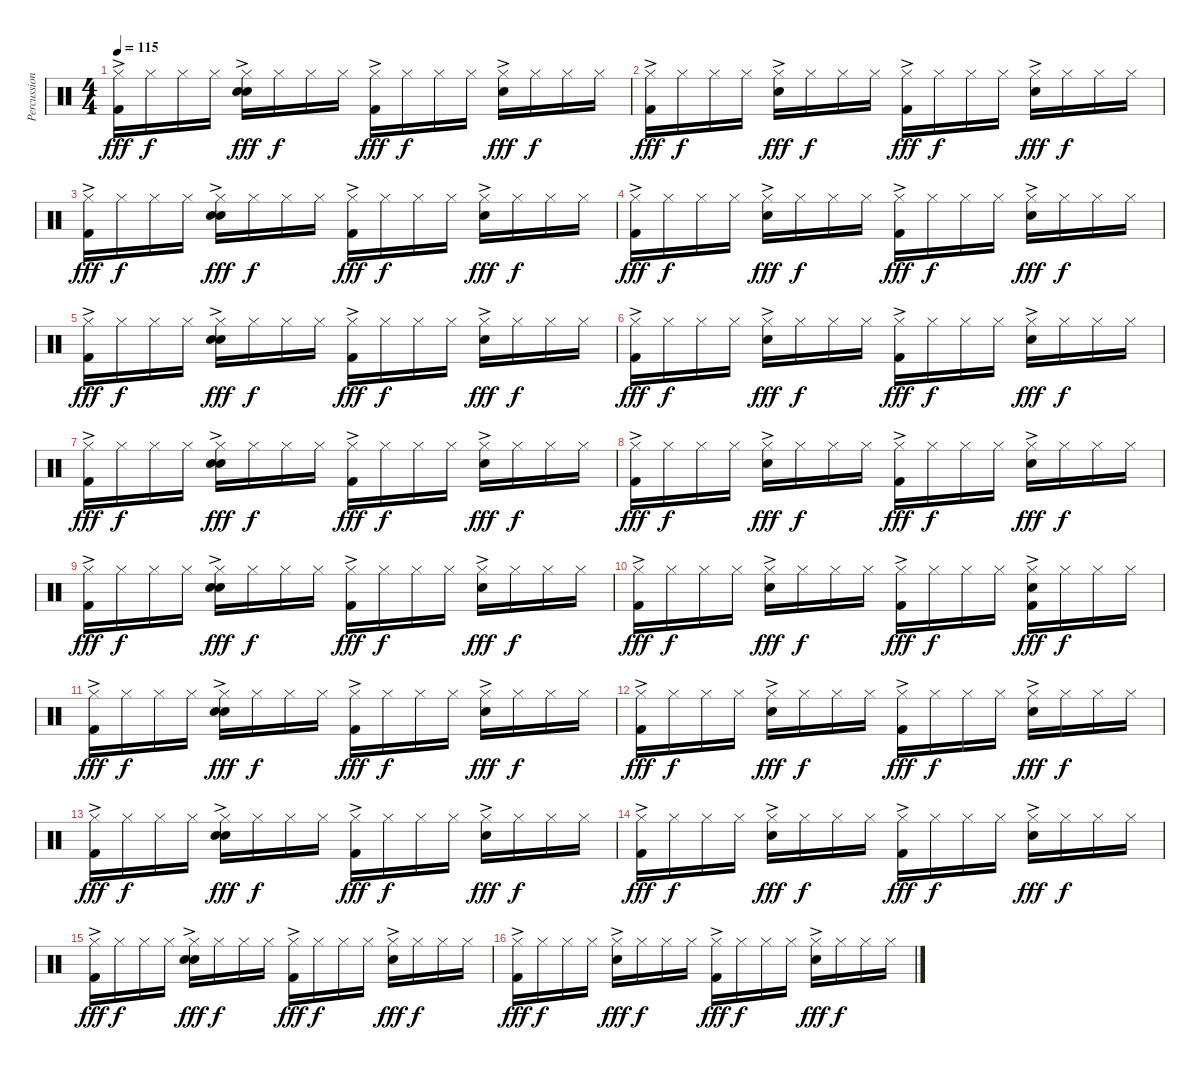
\track ("Percussion" "Percussion") {instrument percussion}
\staff {score}
\articulation defaults
\ts (4 4)
\tempo 115
\clef neutral
\ks c
("Hi-Hat (closed)"{ac} "Kick (hit) 2").16{dy fff} "Hi-Hat (closed)".16{dy f} "Hi-Hat (closed)".16 "Hi-Hat (closed)".16 ("Hi-Hat (closed)"{ac} "Snare (hit) 2" "Hand Clap (hit)").16{dy fff} "Hi-Hat (closed)".16{dy f} "Hi-Hat (closed)".16 "Hi-Hat (closed)".16 ("Hi-Hat (closed)"{ac} "Kick (hit) 2").16{dy fff} "Hi-Hat (closed)".16{dy f} "Hi-Hat (closed)".16 "Hi-Hat (closed)".16 ("Hi-Hat (closed)"{ac} "Snare (hit) 2").16{dy fff} "Hi-Hat (closed)".16{dy f} "Hi-Hat (closed)".16 "Hi-Hat (closed)".16 |
("Hi-Hat (closed)"{ac} "Kick (hit) 2").16{dy fff} "Hi-Hat (closed)".16{dy f} "Hi-Hat (closed)".16 "Hi-Hat (closed)".16 ("Hi-Hat (closed)"{ac} "Snare (hit) 2").16{dy fff} "Hi-Hat (closed)".16{dy f} "Hi-Hat (closed)".16 "Hi-Hat (closed)".16 ("Hi-Hat (closed)"{ac} "Kick (hit) 2").16{dy fff} "Hi-Hat (closed)".16{dy f} "Hi-Hat (closed)".16 "Hi-Hat (closed)".16 ("Hi-Hat (closed)"{ac} "Snare (hit) 2").16{dy fff} "Hi-Hat (closed)".16{dy f} "Hi-Hat (closed)".16 "Hi-Hat (closed)".16 |
("Hi-Hat (closed)"{ac} "Kick (hit) 2").16{dy fff} "Hi-Hat (closed)".16{dy f} "Hi-Hat (closed)".16 "Hi-Hat (closed)".16 ("Hi-Hat (closed)"{ac} "Snare (hit) 2" "Hand Clap (hit)").16{dy fff} "Hi-Hat (closed)".16{dy f} "Hi-Hat (closed)".16 "Hi-Hat (closed)".16 ("Hi-Hat (closed)"{ac} "Kick (hit) 2").16{dy fff} "Hi-Hat (closed)".16{dy f} "Hi-Hat (closed)".16 "Hi-Hat (closed)".16 ("Hi-Hat (closed)"{ac} "Snare (hit) 2").16{dy fff} "Hi-Hat (closed)".16{dy f} "Hi-Hat (closed)".16 "Hi-Hat (closed)".16 |
("Hi-Hat (closed)"{ac} "Kick (hit) 2").16{dy fff} "Hi-Hat (closed)".16{dy f} "Hi-Hat (closed)".16 "Hi-Hat (closed)".16 ("Hi-Hat (closed)"{ac} "Snare (hit) 2").16{dy fff} "Hi-Hat (closed)".16{dy f} "Hi-Hat (closed)".16 "Hi-Hat (closed)".16 ("Hi-Hat (closed)"{ac} "Kick (hit) 2").16{dy fff} "Hi-Hat (closed)".16{dy f} "Hi-Hat (closed)".16 "Hi-Hat (closed)".16 ("Hi-Hat (closed)"{ac} "Snare (hit) 2").16{dy fff} "Hi-Hat (closed)".16{dy f} "Hi-Hat (closed)".16 "Hi-Hat (closed)".16 |
("Hi-Hat (closed)"{ac} "Kick (hit) 2").16{dy fff} "Hi-Hat (closed)".16{dy f} "Hi-Hat (closed)".16 "Hi-Hat (closed)".16 ("Hi-Hat (closed)"{ac} "Snare (hit) 2" "Hand Clap (hit)").16{dy fff} "Hi-Hat (closed)".16{dy f} "Hi-Hat (closed)".16 "Hi-Hat (closed)".16 ("Hi-Hat (closed)"{ac} "Kick (hit) 2").16{dy fff} "Hi-Hat (closed)".16{dy f} "Hi-Hat (closed)".16 "Hi-Hat (closed)".16 ("Hi-Hat (closed)"{ac} "Snare (hit) 2").16{dy fff} "Hi-Hat (closed)".16{dy f} "Hi-Hat (closed)".16 "Hi-Hat (closed)".16 |
("Hi-Hat (closed)"{ac} "Kick (hit) 2").16{dy fff} "Hi-Hat (closed)".16{dy f} "Hi-Hat (closed)".16 "Hi-Hat (closed)".16 ("Hi-Hat (closed)"{ac} "Snare (hit) 2").16{dy fff} "Hi-Hat (closed)".16{dy f} "Hi-Hat (closed)".16 "Hi-Hat (closed)".16 ("Hi-Hat (closed)"{ac} "Kick (hit) 2").16{dy fff} "Hi-Hat (closed)".16{dy f} "Hi-Hat (closed)".16 "Hi-Hat (closed)".16 ("Hi-Hat (closed)"{ac} "Snare (hit) 2").16{dy fff} "Hi-Hat (closed)".16{dy f} "Hi-Hat (closed)".16 "Hi-Hat (closed)".16 |
("Hi-Hat (closed)"{ac} "Kick (hit) 2").16{dy fff} "Hi-Hat (closed)".16{dy f} "Hi-Hat (closed)".16 "Hi-Hat (closed)".16 ("Hi-Hat (closed)"{ac} "Snare (hit) 2" "Hand Clap (hit)").16{dy fff} "Hi-Hat (closed)".16{dy f} "Hi-Hat (closed)".16 "Hi-Hat (closed)".16 ("Hi-Hat (closed)"{ac} "Kick (hit) 2").16{dy fff} "Hi-Hat (closed)".16{dy f} "Hi-Hat (closed)".16 "Hi-Hat (closed)".16 ("Hi-Hat (closed)"{ac} "Snare (hit) 2").16{dy fff} "Hi-Hat (closed)".16{dy f} "Hi-Hat (closed)".16 "Hi-Hat (closed)".16 |
("Hi-Hat (closed)"{ac} "Kick (hit) 2").16{dy fff} "Hi-Hat (closed)".16{dy f} "Hi-Hat (closed)".16 "Hi-Hat (closed)".16 ("Hi-Hat (closed)"{ac} "Snare (hit) 2").16{dy fff} "Hi-Hat (closed)".16{dy f} "Hi-Hat (closed)".16 "Hi-Hat (closed)".16 ("Hi-Hat (closed)"{ac} "Kick (hit) 2").16{dy fff} "Hi-Hat (closed)".16{dy f} "Hi-Hat (closed)".16 "Hi-Hat (closed)".16 ("Hi-Hat (closed)"{ac} "Snare (hit) 2").16{dy fff} "Hi-Hat (closed)".16{dy f} "Hi-Hat (closed)".16 "Hi-Hat (closed)".16 |
("Hi-Hat (closed)"{ac} "Kick (hit) 2").16{dy fff} "Hi-Hat (closed)".16{dy f} "Hi-Hat (closed)".16 "Hi-Hat (closed)".16 ("Hi-Hat (closed)"{ac} "Snare (hit) 2" "Hand Clap (hit)").16{dy fff} "Hi-Hat (closed)".16{dy f} "Hi-Hat (closed)".16 "Hi-Hat (closed)".16 ("Hi-Hat (closed)"{ac} "Kick (hit) 2").16{dy fff} "Hi-Hat (closed)".16{dy f} "Hi-Hat (closed)".16 "Hi-Hat (closed)".16 ("Hi-Hat (closed)"{ac} "Snare (hit) 2").16{dy fff} "Hi-Hat (closed)".16{dy f} "Hi-Hat (closed)".16 "Hi-Hat (closed)".16 |
("Hi-Hat (closed)"{ac} "Kick (hit) 2").16{dy fff} "Hi-Hat (closed)".16{dy f} "Hi-Hat (closed)".16 "Hi-Hat (closed)".16 ("Hi-Hat (closed)"{ac} "Snare (hit) 2").16{dy fff} "Hi-Hat (closed)".16{dy f} "Hi-Hat (closed)".16 "Hi-Hat (closed)".16 ("Hi-Hat (closed)"{ac} "Kick (hit) 2").16{dy fff} "Hi-Hat (closed)".16{dy f} "Hi-Hat (closed)".16 "Hi-Hat (closed)".16 ("Hi-Hat (closed)"{ac} "Kick (hit) 2" "Snare (hit) 2").16{dy fff} "Hi-Hat (closed)".16{dy f} "Hi-Hat (closed)".16 "Hi-Hat (closed)".16 |
("Hi-Hat (closed)"{ac} "Kick (hit) 2").16{dy fff} "Hi-Hat (closed)".16{dy f} "Hi-Hat (closed)".16 "Hi-Hat (closed)".16 ("Hi-Hat (closed)"{ac} "Snare (hit) 2" "Hand Clap (hit)").16{dy fff} "Hi-Hat (closed)".16{dy f} "Hi-Hat (closed)".16 "Hi-Hat (closed)".16 ("Hi-Hat (closed)"{ac} "Kick (hit) 2").16{dy fff} "Hi-Hat (closed)".16{dy f} "Hi-Hat (closed)".16 "Hi-Hat (closed)".16 ("Hi-Hat (closed)"{ac} "Snare (hit) 2").16{dy fff} "Hi-Hat (closed)".16{dy f} "Hi-Hat (closed)".16 "Hi-Hat (closed)".16 |
("Hi-Hat (closed)"{ac} "Kick (hit) 2").16{dy fff} "Hi-Hat (closed)".16{dy f} "Hi-Hat (closed)".16 "Hi-Hat (closed)".16 ("Hi-Hat (closed)"{ac} "Snare (hit) 2").16{dy fff} "Hi-Hat (closed)".16{dy f} "Hi-Hat (closed)".16 "Hi-Hat (closed)".16 ("Hi-Hat (closed)"{ac} "Kick (hit) 2").16{dy fff} "Hi-Hat (closed)".16{dy f} "Hi-Hat (closed)".16 "Hi-Hat (closed)".16 ("Hi-Hat (closed)"{ac} "Snare (hit) 2").16{dy fff} "Hi-Hat (closed)".16{dy f} "Hi-Hat (closed)".16 "Hi-Hat (closed)".16 |
("Hi-Hat (closed)"{ac} "Kick (hit) 2").16{dy fff} "Hi-Hat (closed)".16{dy f} "Hi-Hat (closed)".16 "Hi-Hat (closed)".16 ("Hi-Hat (closed)"{ac} "Snare (hit) 2" "Hand Clap (hit)").16{dy fff} "Hi-Hat (closed)".16{dy f} "Hi-Hat (closed)".16 "Hi-Hat (closed)".16 ("Hi-Hat (closed)"{ac} "Kick (hit) 2").16{dy fff} "Hi-Hat (closed)".16{dy f} "Hi-Hat (closed)".16 "Hi-Hat (closed)".16 ("Hi-Hat (closed)"{ac} "Snare (hit) 2").16{dy fff} "Hi-Hat (closed)".16{dy f} "Hi-Hat (closed)".16 "Hi-Hat (closed)".16 |
("Hi-Hat (closed)"{ac} "Kick (hit) 2").16{dy fff} "Hi-Hat (closed)".16{dy f} "Hi-Hat (closed)".16 "Hi-Hat (closed)".16 ("Hi-Hat (closed)"{ac} "Snare (hit) 2").16{dy fff} "Hi-Hat (closed)".16{dy f} "Hi-Hat (closed)".16 "Hi-Hat (closed)".16 ("Hi-Hat (closed)"{ac} "Kick (hit) 2").16{dy fff} "Hi-Hat (closed)".16{dy f} "Hi-Hat (closed)".16 "Hi-Hat (closed)".16 ("Hi-Hat (closed)"{ac} "Snare (hit) 2").16{dy fff} "Hi-Hat (closed)".16{dy f} "Hi-Hat (closed)".16 "Hi-Hat (closed)".16 |
("Hi-Hat (closed)"{ac} "Kick (hit) 2").16{dy fff} "Hi-Hat (closed)".16{dy f} "Hi-Hat (closed)".16 "Hi-Hat (closed)".16 ("Hi-Hat (closed)"{ac} "Snare (hit) 2" "Hand Clap (hit)").16{dy fff} "Hi-Hat (closed)".16{dy f} "Hi-Hat (closed)".16 "Hi-Hat (closed)".16 ("Hi-Hat (closed)"{ac} "Kick (hit) 2").16{dy fff} "Hi-Hat (closed)".16{dy f} "Hi-Hat (closed)".16 "Hi-Hat (closed)".16 ("Hi-Hat (closed)"{ac} "Snare (hit) 2").16{dy fff} "Hi-Hat (closed)".16{dy f} "Hi-Hat (closed)".16 "Hi-Hat (closed)".16 |
("Hi-Hat (closed)"{ac} "Kick (hit) 2").16{dy fff} "Hi-Hat (closed)".16{dy f} "Hi-Hat (closed)".16 "Hi-Hat (closed)".16 ("Hi-Hat (closed)"{ac} "Snare (hit) 2").16{dy fff} "Hi-Hat (closed)".16{dy f} "Hi-Hat (closed)".16 "Hi-Hat (closed)".16 ("Hi-Hat (closed)"{ac} "Kick (hit) 2").16{dy fff} "Hi-Hat (closed)".16{dy f} "Hi-Hat (closed)".16 "Hi-Hat (closed)".16 ("Hi-Hat (closed)"{ac} "Snare (hit) 2").16{dy fff} "Hi-Hat (closed)".16{dy f} "Hi-Hat (closed)".16 "Hi-Hat (closed)".16
